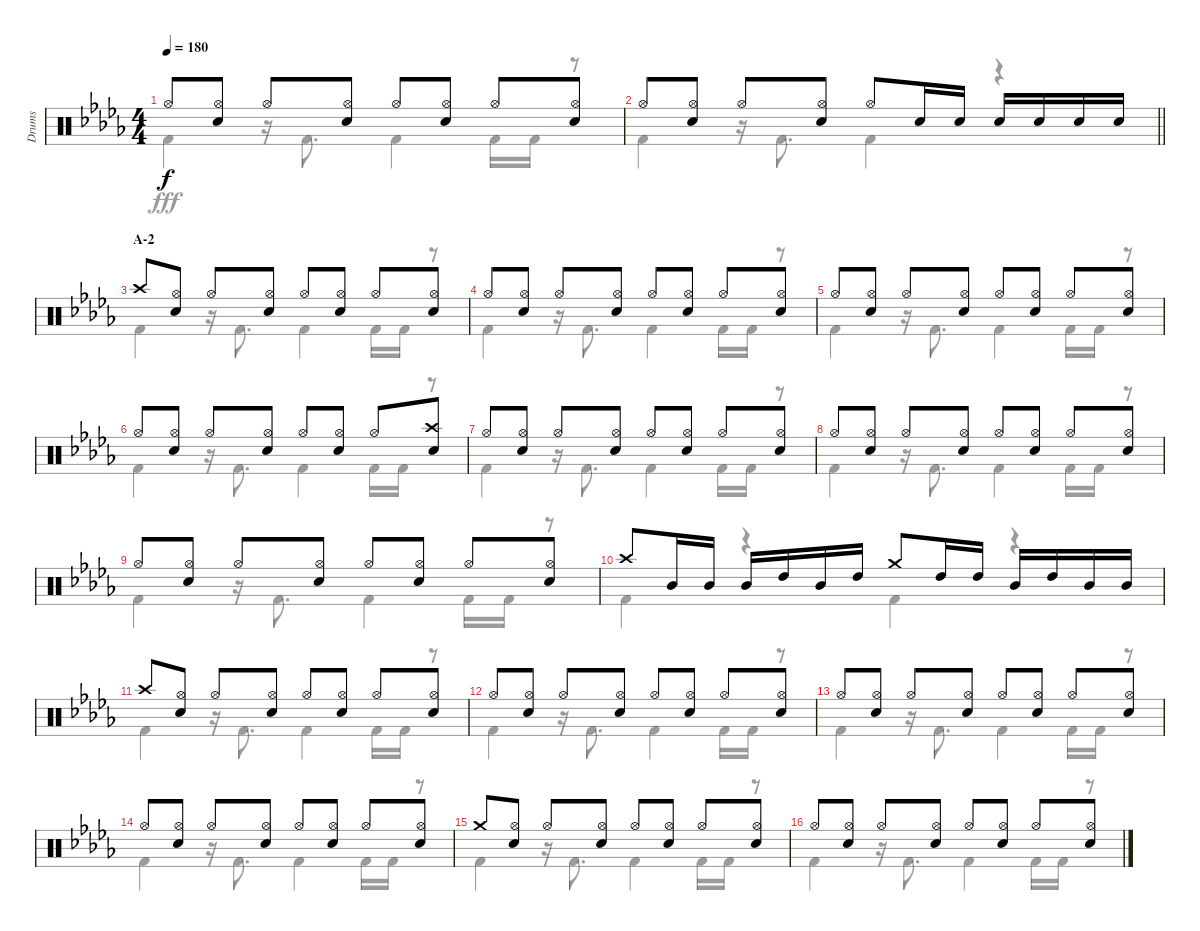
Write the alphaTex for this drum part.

\track ("Drums" "Drums") {instrument percussion}
\staff {score}
\articulation defaults
\voice
\ts (4 4)
\tempo 180
\clef neutral
\ks db "Hi-Hat (open)".8{dy f}
("Hi-Hat (open)" "Snare (hit) 2").8 "Hi-Hat (open)".8 ("Hi-Hat (open)" "Snare (hit) 2").8 "Hi-Hat (open)".8 ("Hi-Hat (open)" "Snare (hit) 2").8 "Hi-Hat (open)".8 ("Hi-Hat (open)" "Snare (hit) 2").8 |
\barLineRight lightlight "Hi-Hat (open)".8
("Hi-Hat (open)" "Snare (hit) 2").8 "Hi-Hat (open)".8 ("Hi-Hat (open)" "Snare (hit) 2").8 "Hi-Hat (open)".8 "Snare (hit) 2".16 "Snare (hit) 2".16 "Snare (hit) 2".16 "Snare (hit) 2".16 "Snare (hit) 2".16 "Snare (hit) 2".16 |
\section ("" "A-2")
"Crash high (hit)".8 ("Hi-Hat (open)" "Snare (hit) 2").8 "Hi-Hat (open)".8 ("Hi-Hat (open)" "Snare (hit) 2").8 "Hi-Hat (open)".8 ("Hi-Hat (open)" "Snare (hit) 2").8 "Hi-Hat (open)".8 ("Hi-Hat (open)" "Snare (hit) 2").8 |
"Hi-Hat (open)".8 ("Hi-Hat (open)" "Snare (hit) 2").8 "Hi-Hat (open)".8 ("Hi-Hat (open)" "Snare (hit) 2").8 "Hi-Hat (open)".8 ("Hi-Hat (open)" "Snare (hit) 2").8 "Hi-Hat (open)".8 ("Hi-Hat (open)" "Snare (hit) 2").8 |
"Hi-Hat (open)".8 ("Hi-Hat (open)" "Snare (hit) 2").8 "Hi-Hat (open)".8 ("Hi-Hat (open)" "Snare (hit) 2").8 "Hi-Hat (open)".8 ("Hi-Hat (open)" "Snare (hit) 2").8 "Hi-Hat (open)".8 ("Hi-Hat (open)" "Snare (hit) 2").8 |
"Hi-Hat (open)".8 ("Hi-Hat (open)" "Snare (hit) 2").8 "Hi-Hat (open)".8 ("Hi-Hat (open)" "Snare (hit) 2").8 "Hi-Hat (open)".8 ("Hi-Hat (open)" "Snare (hit) 2").8 "Hi-Hat (open)".8 ("Crash high (hit)" "Snare (hit) 2").8 |
"Hi-Hat (open)".8 ("Hi-Hat (open)" "Snare (hit) 2").8 "Hi-Hat (open)".8 ("Hi-Hat (open)" "Snare (hit) 2").8 "Hi-Hat (open)".8 ("Hi-Hat (open)" "Snare (hit) 2").8 "Hi-Hat (open)".8 ("Hi-Hat (open)" "Snare (hit) 2").8 |
"Hi-Hat (open)".8 ("Hi-Hat (open)" "Snare (hit) 2").8 "Hi-Hat (open)".8 ("Hi-Hat (open)" "Snare (hit) 2").8 "Hi-Hat (open)".8 ("Hi-Hat (open)" "Snare (hit) 2").8 "Hi-Hat (open)".8 ("Hi-Hat (open)" "Snare (hit) 2").8 |
"Hi-Hat (open)".8 ("Hi-Hat (open)" "Snare (hit) 2").8 "Hi-Hat (open)".8 ("Hi-Hat (open)" "Snare (hit) 2").8 "Hi-Hat (open)".8 ("Hi-Hat (open)" "Snare (hit) 2").8 "Hi-Hat (open)".8 ("Hi-Hat (open)" "Snare (hit) 2").8 |
"Crash high (hit)".8 "Mid Tom (hit)".16 "Mid Tom (hit)".16 "Mid Tom (hit)".16 "High Tom (hit)".16 "Mid Tom (hit)".16 "High Tom (hit)".16 "Crash medium (hit)".8 "High Tom (hit)".16 "High Tom (hit)".16 "Mid Tom (hit)".16 "High Tom (hit)".16 "Mid Tom (hit)".16 "Mid Tom (hit)".16 |
"Crash high (hit)".8 ("Hi-Hat (open)" "Snare (hit) 2").8 "Hi-Hat (open)".8 ("Hi-Hat (open)" "Snare (hit) 2").8 "Hi-Hat (open)".8 ("Hi-Hat (open)" "Snare (hit) 2").8 "Hi-Hat (open)".8 ("Hi-Hat (open)" "Snare (hit) 2").8 |
"Hi-Hat (open)".8 ("Hi-Hat (open)" "Snare (hit) 2").8 "Hi-Hat (open)".8 ("Hi-Hat (open)" "Snare (hit) 2").8 "Hi-Hat (open)".8 ("Hi-Hat (open)" "Snare (hit) 2").8 "Hi-Hat (open)".8 ("Hi-Hat (open)" "Snare (hit) 2").8 |
"Hi-Hat (open)".8 ("Hi-Hat (open)" "Snare (hit) 2").8 "Hi-Hat (open)".8 ("Hi-Hat (open)" "Snare (hit) 2").8 "Hi-Hat (open)".8 ("Hi-Hat (open)" "Snare (hit) 2").8 "Hi-Hat (open)".8 ("Hi-Hat (open)" "Snare (hit) 2").8 |
"Hi-Hat (open)".8 ("Hi-Hat (open)" "Snare (hit) 2").8 "Hi-Hat (open)".8 ("Hi-Hat (open)" "Snare (hit) 2").8 "Hi-Hat (open)".8 ("Hi-Hat (open)" "Snare (hit) 2").8 "Hi-Hat (open)".8 ("Hi-Hat (open)" "Snare (hit) 2").8 |
"Crash medium (hit)".8 ("Hi-Hat (open)" "Snare (hit) 2").8 "Hi-Hat (open)".8 ("Hi-Hat (open)" "Snare (hit) 2").8 "Hi-Hat (open)".8 ("Hi-Hat (open)" "Snare (hit) 2").8 "Hi-Hat (open)".8 ("Hi-Hat (open)" "Snare (hit) 2").8 |
"Hi-Hat (open)".8 ("Hi-Hat (open)" "Snare (hit) 2").8 "Hi-Hat (open)".8 ("Hi-Hat (open)" "Snare (hit) 2").8 "Hi-Hat (open)".8 ("Hi-Hat (open)" "Snare (hit) 2").8 "Hi-Hat (open)".8 ("Hi-Hat (open)" "Snare (hit) 2").8
\voice
\clef neutral
\ottava regular
\simile none
\ks db "Kick (hit) 2".4{dy fff}
r.16 "Kick (hit) 2".8{d} "Kick (hit) 2".4 "Kick (hit) 2".16 "Kick (hit) 2".16 r.8 |
\barLineRight lightlight "Kick (hit) 2".4
r.16 "Kick (hit) 2".8{d} "Kick (hit) 2".4 r.4 |
"Kick (hit) 2".4 r.16 "Kick (hit) 2".8{d} "Kick (hit) 2".4 "Kick (hit) 2".16 "Kick (hit) 2".16 r.8 |
"Kick (hit) 2".4 r.16 "Kick (hit) 2".8{d} "Kick (hit) 2".4 "Kick (hit) 2".16 "Kick (hit) 2".16 r.8 |
"Kick (hit) 2".4 r.16 "Kick (hit) 2".8{d} "Kick (hit) 2".4 "Kick (hit) 2".16 "Kick (hit) 2".16 r.8 |
"Kick (hit) 2".4 r.16 "Kick (hit) 2".8{d} "Kick (hit) 2".4 "Kick (hit) 2".16 "Kick (hit) 2".16 r.8 |
"Kick (hit) 2".4 r.16 "Kick (hit) 2".8{d} "Kick (hit) 2".4 "Kick (hit) 2".16 "Kick (hit) 2".16 r.8 |
"Kick (hit) 2".4 r.16 "Kick (hit) 2".8{d} "Kick (hit) 2".4 "Kick (hit) 2".16 "Kick (hit) 2".16 r.8 |
"Kick (hit) 2".4 r.16 "Kick (hit) 2".8{d} "Kick (hit) 2".4 "Kick (hit) 2".16 "Kick (hit) 2".16 r.8 |
"Kick (hit) 2".4 r.4 "Kick (hit) 2".4 r.4 |
"Kick (hit) 2".4 r.16 "Kick (hit) 2".8{d} "Kick (hit) 2".4 "Kick (hit) 2".16 "Kick (hit) 2".16 r.8 |
"Kick (hit) 2".4 r.16 "Kick (hit) 2".8{d} "Kick (hit) 2".4 "Kick (hit) 2".16 "Kick (hit) 2".16 r.8 |
"Kick (hit) 2".4 r.16 "Kick (hit) 2".8{d} "Kick (hit) 2".4 "Kick (hit) 2".16 "Kick (hit) 2".16 r.8 |
"Kick (hit) 2".4 r.16 "Kick (hit) 2".8{d} "Kick (hit) 2".4 "Kick (hit) 2".16 "Kick (hit) 2".16 r.8 |
"Kick (hit) 2".4 r.16 "Kick (hit) 2".8{d} "Kick (hit) 2".4 "Kick (hit) 2".16 "Kick (hit) 2".16 r.8 |
"Kick (hit) 2".4 r.16 "Kick (hit) 2".8{d} "Kick (hit) 2".4 "Kick (hit) 2".16 "Kick (hit) 2".16 r.8
